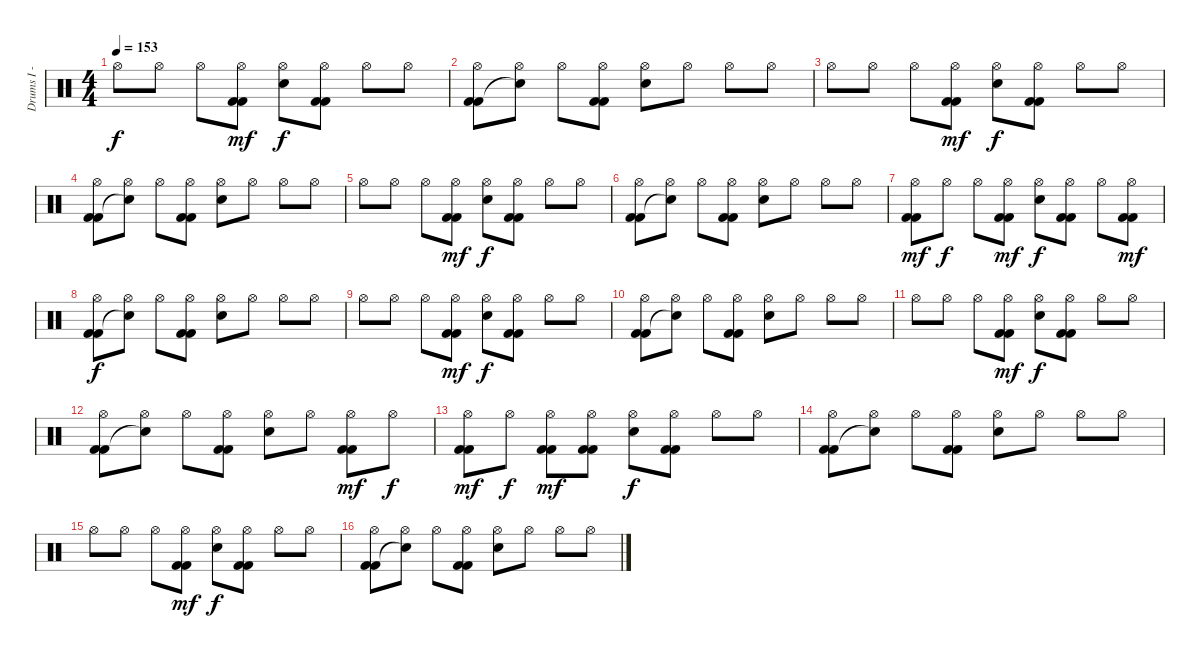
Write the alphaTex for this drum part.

\track ("Drums I - Adam" "Drums I - ") {instrument percussion}
\staff {score}
\articulation defaults
\ts (4 4)
\tempo 153
\clef neutral
\ks c "Hi-Hat (open)".8{dy f} "Hi-Hat (open)".8 "Hi-Hat (open)".8
("Hi-Hat (open)" "Kick (hit) 2" "Kick (hit) 2").8{dy mf} ("Hi-Hat (open)" "Electric Snare (hit)").8{dy f} ("Hi-Hat (open)" "Kick (hit) 2" "Kick (hit) 2").8 "Hi-Hat (open)".8 "Hi-Hat (open)".8 |
("Hi-Hat (open)" "Kick (hit) 2" "Kick (hit) 2").8 ("Hi-Hat (open)" "Snare (hit)"{t}).8 "Hi-Hat (open)".8 ("Hi-Hat (open)" "Kick (hit) 2" "Kick (hit) 2").8 ("Hi-Hat (open)" "Electric Snare (hit)").8 "Hi-Hat (open)".8 "Hi-Hat (open)".8 "Hi-Hat (open)".8 |
"Hi-Hat (open)".8 "Hi-Hat (open)".8 "Hi-Hat (open)".8 ("Hi-Hat (open)" "Kick (hit) 2" "Kick (hit) 2").8{dy mf} ("Hi-Hat (open)" "Electric Snare (hit)").8{dy f} ("Hi-Hat (open)" "Kick (hit) 2" "Kick (hit) 2").8 "Hi-Hat (open)".8 "Hi-Hat (open)".8 |
("Hi-Hat (open)" "Kick (hit) 2" "Kick (hit) 2").8 ("Hi-Hat (open)" "Snare (hit)"{t}).8 "Hi-Hat (open)".8 ("Hi-Hat (open)" "Kick (hit) 2" "Kick (hit) 2").8 ("Hi-Hat (open)" "Electric Snare (hit)").8 "Hi-Hat (open)".8 "Hi-Hat (open)".8 "Hi-Hat (open)".8 |
"Hi-Hat (open)".8 "Hi-Hat (open)".8 "Hi-Hat (open)".8 ("Hi-Hat (open)" "Kick (hit) 2" "Kick (hit) 2").8{dy mf} ("Hi-Hat (open)" "Electric Snare (hit)").8{dy f} ("Hi-Hat (open)" "Kick (hit) 2" "Kick (hit) 2").8 "Hi-Hat (open)".8 "Hi-Hat (open)".8 |
("Hi-Hat (open)" "Kick (hit) 2" "Kick (hit) 2").8 ("Hi-Hat (open)" "Snare (hit)"{t}).8 "Hi-Hat (open)".8 ("Hi-Hat (open)" "Kick (hit) 2" "Kick (hit) 2").8 ("Hi-Hat (open)" "Electric Snare (hit)").8 "Hi-Hat (open)".8 "Hi-Hat (open)".8 "Hi-Hat (open)".8 |
("Hi-Hat (open)" "Kick (hit) 2" "Kick (hit) 2").8{dy mf} "Hi-Hat (open)".8{dy f} "Hi-Hat (open)".8 ("Hi-Hat (open)" "Kick (hit) 2" "Kick (hit) 2").8{dy mf} ("Hi-Hat (open)" "Electric Snare (hit)").8{dy f} ("Hi-Hat (open)" "Kick (hit) 2" "Kick (hit) 2").8 "Hi-Hat (open)".8 ("Hi-Hat (open)" "Kick (hit) 2" "Kick (hit) 2").8{dy mf} |
("Hi-Hat (open)" "Kick (hit) 2" "Kick (hit) 2").8{dy f} ("Hi-Hat (open)" "Snare (hit)"{t}).8 "Hi-Hat (open)".8 ("Hi-Hat (open)" "Kick (hit) 2" "Kick (hit) 2").8 ("Hi-Hat (open)" "Electric Snare (hit)").8 "Hi-Hat (open)".8 "Hi-Hat (open)".8 "Hi-Hat (open)".8 |
"Hi-Hat (open)".8 "Hi-Hat (open)".8 "Hi-Hat (open)".8 ("Hi-Hat (open)" "Kick (hit) 2" "Kick (hit) 2").8{dy mf} ("Hi-Hat (open)" "Electric Snare (hit)").8{dy f} ("Hi-Hat (open)" "Kick (hit) 2" "Kick (hit) 2").8 "Hi-Hat (open)".8 "Hi-Hat (open)".8 |
("Hi-Hat (open)" "Kick (hit) 2" "Kick (hit) 2").8 ("Hi-Hat (open)" "Snare (hit)"{t}).8 "Hi-Hat (open)".8 ("Hi-Hat (open)" "Kick (hit) 2" "Kick (hit) 2").8 ("Hi-Hat (open)" "Electric Snare (hit)").8 "Hi-Hat (open)".8 "Hi-Hat (open)".8 "Hi-Hat (open)".8 |
"Hi-Hat (open)".8 "Hi-Hat (open)".8 "Hi-Hat (open)".8 ("Hi-Hat (open)" "Kick (hit) 2" "Kick (hit) 2").8{dy mf} ("Hi-Hat (open)" "Electric Snare (hit)").8{dy f} ("Hi-Hat (open)" "Kick (hit) 2" "Kick (hit) 2").8 "Hi-Hat (open)".8 "Hi-Hat (open)".8 |
("Hi-Hat (open)" "Kick (hit) 2" "Kick (hit) 2").8 ("Hi-Hat (open)" "Snare (hit)"{t}).8 "Hi-Hat (open)".8 ("Hi-Hat (open)" "Kick (hit) 2" "Kick (hit) 2").8 ("Hi-Hat (open)" "Electric Snare (hit)").8 "Hi-Hat (open)".8 ("Hi-Hat (open)" "Kick (hit) 2" "Kick (hit) 2").8{dy mf} "Hi-Hat (open)".8{dy f} |
("Hi-Hat (open)" "Kick (hit) 2" "Kick (hit) 2").8{dy mf} "Hi-Hat (open)".8{dy f} ("Hi-Hat (open)" "Kick (hit) 2" "Kick (hit) 2").8{dy mf} ("Hi-Hat (open)" "Kick (hit) 2" "Kick (hit) 2").8 ("Hi-Hat (open)" "Electric Snare (hit)").8{dy f} ("Hi-Hat (open)" "Kick (hit) 2" "Kick (hit) 2").8 "Hi-Hat (open)".8 "Hi-Hat (open)".8 |
("Hi-Hat (open)" "Kick (hit) 2" "Kick (hit) 2").8 ("Hi-Hat (open)" "Snare (hit)"{t}).8 "Hi-Hat (open)".8 ("Hi-Hat (open)" "Kick (hit) 2" "Kick (hit) 2").8 ("Hi-Hat (open)" "Electric Snare (hit)").8 "Hi-Hat (open)".8 "Hi-Hat (open)".8 "Hi-Hat (open)".8 |
"Hi-Hat (open)".8 "Hi-Hat (open)".8 "Hi-Hat (open)".8 ("Hi-Hat (open)" "Kick (hit) 2" "Kick (hit) 2").8{dy mf} ("Hi-Hat (open)" "Electric Snare (hit)").8{dy f} ("Hi-Hat (open)" "Kick (hit) 2" "Kick (hit) 2").8 "Hi-Hat (open)".8 "Hi-Hat (open)".8 |
("Hi-Hat (open)" "Kick (hit) 2" "Kick (hit) 2").8 ("Hi-Hat (open)" "Snare (hit)"{t}).8 "Hi-Hat (open)".8 ("Hi-Hat (open)" "Kick (hit) 2" "Kick (hit) 2").8 ("Hi-Hat (open)" "Electric Snare (hit)").8 "Hi-Hat (open)".8 "Hi-Hat (open)".8 "Hi-Hat (open)".8
